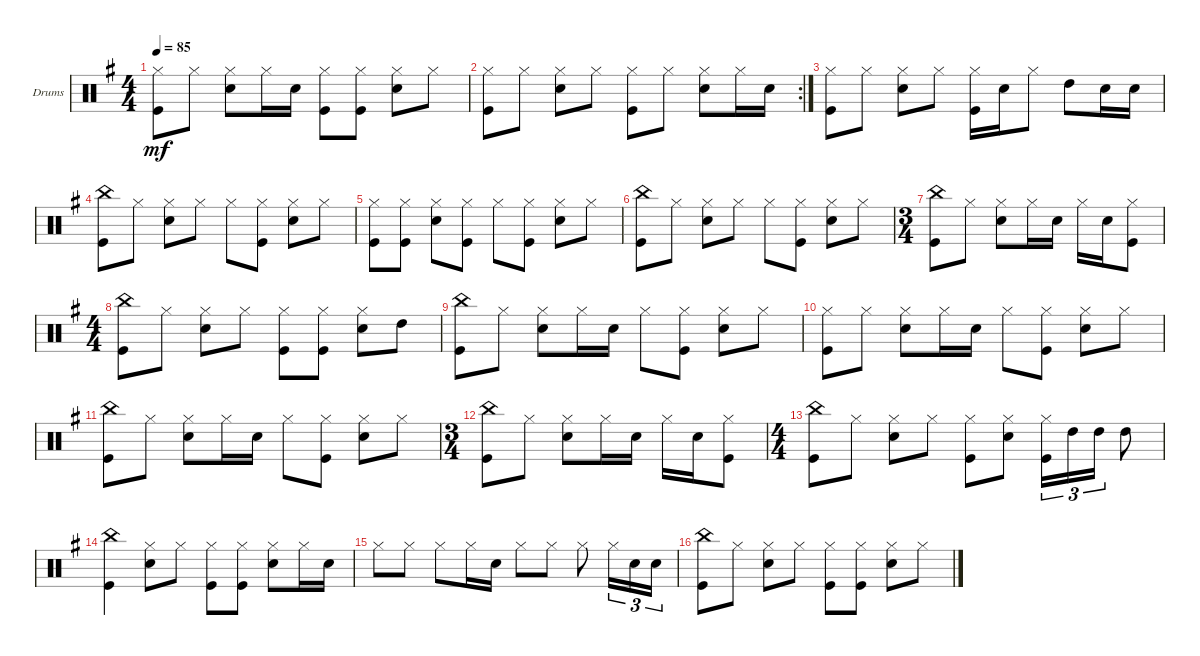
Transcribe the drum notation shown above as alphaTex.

\defaultSystemsLayout 4
\bracketExtendMode groupsimilarinstruments
\firstSystemTrackNameOrientation horizontal
\otherSystemsTrackNameOrientation horizontal
\track ("Ian Paice" "Drums") {instrument percussion}
\staff {score}
\articulation defaults
\ts (4 4)
\tempo 85
\clef neutral
\ks g
("Hi-Hat (closed)" "Kick (hit)").8{dy mf} "Hi-Hat (closed)".8 ("Hi-Hat (closed)" "Snare (hit) 2").8 "Hi-Hat (closed)".16 "Snare (hit) 2".16 ("Hi-Hat (closed)" "Kick (hit)").8 ("Kick (hit)" "Hi-Hat (closed)").8 ("Hi-Hat (closed)" "Snare (hit) 2").8 "Hi-Hat (closed)".8 |
\rc 2
("Hi-Hat (closed)" "Kick (hit)").8 "Hi-Hat (closed)".8 ("Hi-Hat (closed)" "Snare (hit) 2").8 "Hi-Hat (closed)".8 ("Hi-Hat (closed)" "Kick (hit)").8 "Hi-Hat (closed)".8 ("Hi-Hat (closed)" "Snare (hit) 2").8 "Hi-Hat (closed)".16 "Snare (hit) 2".16 |
("Kick (hit)" "Hi-Hat (closed)").8 "Hi-Hat (closed)".8 ("Hi-Hat (closed)" "Snare (hit) 2").8 "Hi-Hat (closed)".8 ("Hi-Hat (closed)" "Kick (hit)").16 "Snare (hit) 2".16 "Hi-Hat (closed)".8 "High Tom (hit)".8 "Snare (hit) 2".16 "Snare (hit) 2".16 |
("Kick (hit)" "China (hit)").8 "Hi-Hat (closed)".8 ("Hi-Hat (closed)" "Snare (hit) 2").8 "Hi-Hat (closed)".8 "Hi-Hat (closed)".8 ("Hi-Hat (closed)" "Kick (hit)").8 ("Hi-Hat (closed)" "Snare (hit) 2").8 "Hi-Hat (closed)".8 |
("Hi-Hat (closed)" "Kick (hit)").8 ("Hi-Hat (closed)" "Kick (hit)").8 ("Hi-Hat (closed)" "Snare (hit) 2").8 ("Hi-Hat (closed)" "Kick (hit)").8 "Hi-Hat (closed)".8 ("Hi-Hat (closed)" "Kick (hit)").8 ("Hi-Hat (closed)" "Snare (hit) 2").8 "Hi-Hat (closed)".8 |
("Kick (hit)" "China (hit)").8 "Hi-Hat (closed)".8 ("Hi-Hat (closed)" "Snare (hit) 2").8 "Hi-Hat (closed)".8 "Hi-Hat (closed)".8 ("Hi-Hat (closed)" "Kick (hit)").8 ("Hi-Hat (closed)" "Snare (hit) 2").8 "Hi-Hat (closed)".8 |
\ts (3 4)
("China (hit)" "Kick (hit)").8 "Hi-Hat (closed)".8 ("Hi-Hat (closed)" "Snare (hit) 2").8 "Hi-Hat (closed)".16 "Snare (hit) 2".16 "Hi-Hat (closed)".16 "Snare (hit) 2".16 ("Hi-Hat (closed)" "Kick (hit)").8 |
\ts (4 4)
("China (hit)" "Kick (hit)").8 "Hi-Hat (closed)".8 ("Hi-Hat (closed)" "Snare (hit) 2").8 "Hi-Hat (closed)".8 ("Hi-Hat (closed)" "Kick (hit)").8 ("Kick (hit)" "Hi-Hat (closed)").8 ("Hi-Hat (closed)" "Snare (hit) 2").8 "High Tom (hit)".8 |
("Kick (hit)" "China (hit)").8 "Hi-Hat (closed)".8 ("Hi-Hat (closed)" "Snare (hit) 2").8 "Hi-Hat (closed)".16 "Snare (hit) 2".16 "Hi-Hat (closed)".8 ("Hi-Hat (closed)" "Kick (hit)").8 ("Snare (hit) 2" "Hi-Hat (closed)").8 "Hi-Hat (closed)".8 |
("Hi-Hat (closed)" "Kick (hit)").8 "Hi-Hat (closed)".8 ("Hi-Hat (closed)" "Snare (hit) 2").8 "Hi-Hat (closed)".16 "Snare (hit) 2".16 "Hi-Hat (closed)".8 ("Hi-Hat (closed)" "Kick (hit)").8 ("Snare (hit) 2" "Hi-Hat (closed)").8 "Hi-Hat (closed)".8 |
("China (hit)" "Kick (hit)").8 "Hi-Hat (closed)".8 ("Hi-Hat (closed)" "Snare (hit) 2").8 "Hi-Hat (closed)".16 "Snare (hit) 2".16 "Hi-Hat (closed)".8 ("Hi-Hat (closed)" "Kick (hit)").8 ("Snare (hit) 2" "Hi-Hat (closed)").8 "Hi-Hat (closed)".8 |
\ts (3 4)
("China (hit)" "Kick (hit)").8 "Hi-Hat (closed)".8 ("Hi-Hat (closed)" "Snare (hit) 2").8 "Hi-Hat (closed)".16 "Snare (hit) 2".16 "Hi-Hat (closed)".16 "Snare (hit) 2".16 ("Hi-Hat (closed)" "Kick (hit)").8 |
\ts (4 4)
("China (hit)" "Kick (hit)").8 "Hi-Hat (closed)".8 ("Hi-Hat (closed)" "Snare (hit) 2").8 "Hi-Hat (closed)".8 ("Hi-Hat (closed)" "Kick (hit)").8 ("Snare (hit) 2" "Hi-Hat (closed)").8 ("Hi-Hat (closed)" "Kick (hit)").16{tu (3 2)} "High Tom (hit)".16{tu (3 2)} "High Tom (hit)".16{tu (3 2)} "High Tom (hit)".8 |
("China (hit)" "Kick (hit)").4 ("Hi-Hat (closed)" "Snare (hit) 2").8 "Hi-Hat (closed)".8 ("Kick (hit)" "Hi-Hat (closed)").8 ("Kick (hit)" "Hi-Hat (closed)").8 ("Hi-Hat (closed)" "Snare (hit) 2").8 "Hi-Hat (closed)".16 "Snare (hit) 2".16 |
"Hi-Hat (closed)".8 "Hi-Hat (closed)".8 "Hi-Hat (closed)".8 "Hi-Hat (closed)".16 "Snare (hit) 2".16 "Hi-Hat (closed)".8 "Hi-Hat (closed)".8 "Hi-Hat (closed)".8 "Hi-Hat (closed)".16{tu (3 2)} "Snare (hit) 2".16{tu (3 2)} "Snare (hit) 2".16{tu (3 2)} |
("China (hit)" "Kick (hit)").8 "Hi-Hat (closed)".8 ("Hi-Hat (closed)" "Snare (hit) 2").8 "Hi-Hat (closed)".8 ("Hi-Hat (closed)" "Kick (hit)").8 ("Hi-Hat (closed)" "Kick (hit)").8 ("Hi-Hat (closed)" "Snare (hit) 2").8 "Hi-Hat (closed)".8
